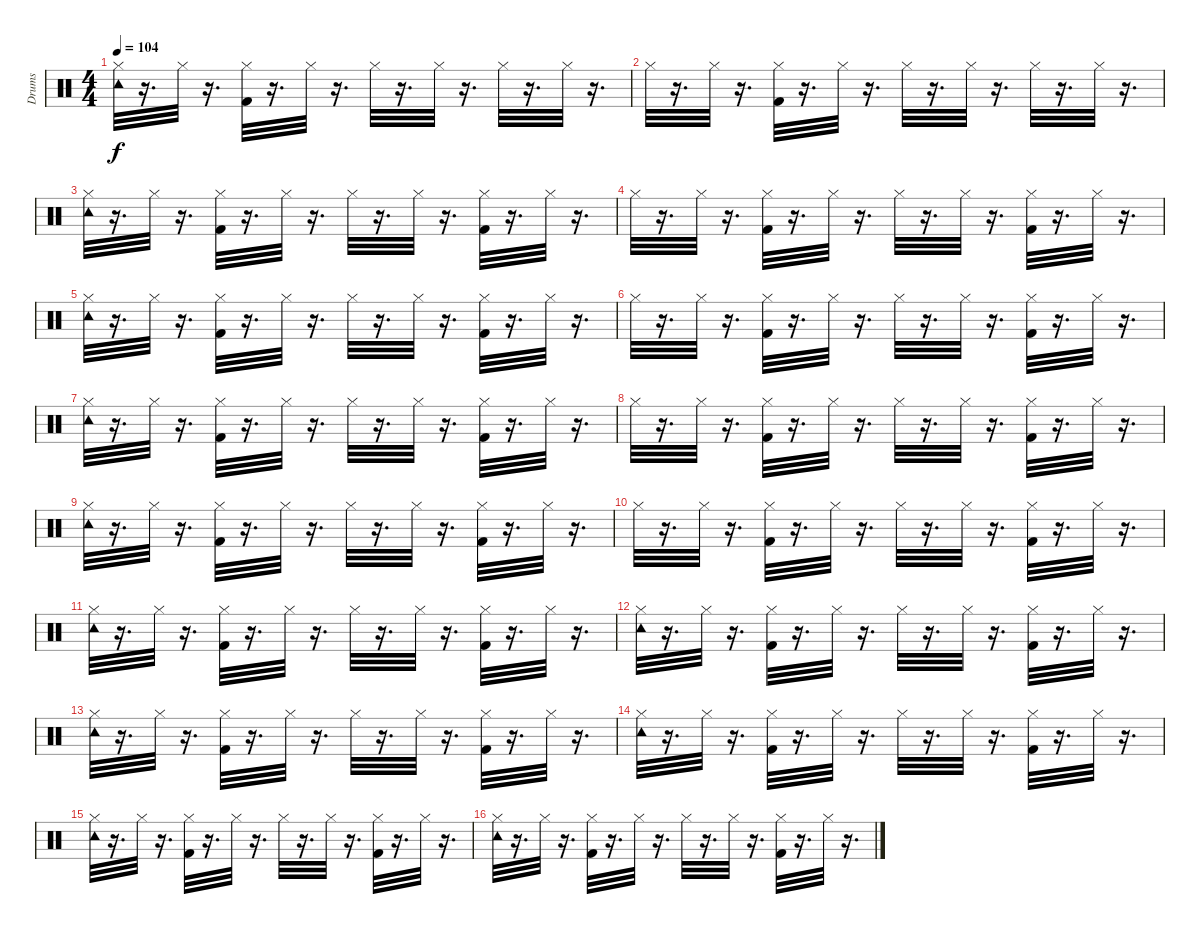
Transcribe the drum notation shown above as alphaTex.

\track ("Drums" "Drums") {instrument percussion}
\staff {score}
\articulation defaults
\ts (4 4)
\tempo 104
\clef neutral
\ks c
("Hi-Hat (closed)" "Tambourine (hit)").32{dy f} r.16{d} "Hi-Hat (closed)".32 r.16{d} ("Kick (hit) 2" "Hi-Hat (closed)").32 r.16{d} "Hi-Hat (closed)".32 r.16{d} "Hi-Hat (closed)".32 r.16{d} "Hi-Hat (closed)".32 r.16{d} "Hi-Hat (closed)".32 r.16{d} "Hi-Hat (closed)".32 r.16{d} |
"Hi-Hat (closed)".32 r.16{d} "Hi-Hat (closed)".32 r.16{d} ("Kick (hit) 2" "Hi-Hat (closed)").32 r.16{d} "Hi-Hat (closed)".32 r.16{d} "Hi-Hat (closed)".32 r.16{d} "Hi-Hat (closed)".32 r.16{d} "Hi-Hat (closed)".32 r.16{d} "Hi-Hat (closed)".32 r.16{d} |
("Hi-Hat (closed)" "Tambourine (hit)").32 r.16{d} "Hi-Hat (closed)".32 r.16{d} ("Hi-Hat (closed)" "Kick (hit) 2").32 r.16{d} "Hi-Hat (closed)".32 r.16{d} "Hi-Hat (closed)".32 r.16{d} "Hi-Hat (closed)".32 r.16{d} ("Kick (hit) 2" "Hi-Hat (closed)").32 r.16{d} "Hi-Hat (closed)".32 r.16{d} |
"Hi-Hat (closed)".32 r.16{d} "Hi-Hat (closed)".32 r.16{d} ("Kick (hit) 2" "Hi-Hat (closed)").32 r.16{d} "Hi-Hat (closed)".32 r.16{d} "Hi-Hat (closed)".32 r.16{d} "Hi-Hat (closed)".32 r.16{d} ("Kick (hit) 2" "Hi-Hat (closed)").32 r.16{d} "Hi-Hat (closed)".32 r.16{d} |
("Hi-Hat (closed)" "Tambourine (hit)").32 r.16{d} "Hi-Hat (closed)".32 r.16{d} ("Kick (hit) 2" "Hi-Hat (closed)").32 r.16{d} "Hi-Hat (closed)".32 r.16{d} "Hi-Hat (closed)".32 r.16{d} "Hi-Hat (closed)".32 r.16{d} ("Kick (hit) 2" "Hi-Hat (closed)").32 r.16{d} "Hi-Hat (closed)".32 r.16{d} |
"Hi-Hat (closed)".32 r.16{d} "Hi-Hat (closed)".32 r.16{d} ("Kick (hit) 2" "Hi-Hat (closed)").32 r.16{d} "Hi-Hat (closed)".32 r.16{d} "Hi-Hat (closed)".32 r.16{d} "Hi-Hat (closed)".32 r.16{d} ("Kick (hit) 2" "Hi-Hat (closed)").32 r.16{d} "Hi-Hat (closed)".32 r.16{d} |
("Hi-Hat (closed)" "Tambourine (hit)").32 r.16{d} "Hi-Hat (closed)".32 r.16{d} ("Hi-Hat (closed)" "Kick (hit) 2").32 r.16{d} "Hi-Hat (closed)".32 r.16{d} "Hi-Hat (closed)".32 r.16{d} "Hi-Hat (closed)".32 r.16{d} ("Kick (hit) 2" "Hi-Hat (closed)").32 r.16{d} "Hi-Hat (closed)".32 r.16{d} |
"Hi-Hat (closed)".32 r.16{d} "Hi-Hat (closed)".32 r.16{d} ("Kick (hit) 2" "Hi-Hat (closed)").32 r.16{d} "Hi-Hat (closed)".32 r.16{d} "Hi-Hat (closed)".32 r.16{d} "Hi-Hat (closed)".32 r.16{d} ("Kick (hit) 2" "Hi-Hat (closed)").32 r.16{d} "Hi-Hat (closed)".32 r.16{d} |
("Hi-Hat (closed)" "Tambourine (hit)").32 r.16{d} "Hi-Hat (closed)".32 r.16{d} ("Kick (hit) 2" "Hi-Hat (closed)").32 r.16{d} "Hi-Hat (closed)".32 r.16{d} "Hi-Hat (closed)".32 r.16{d} "Hi-Hat (closed)".32 r.16{d} ("Kick (hit) 2" "Hi-Hat (closed)").32 r.16{d} "Hi-Hat (closed)".32 r.16{d} |
"Hi-Hat (closed)".32 r.16{d} "Hi-Hat (closed)".32 r.16{d} ("Kick (hit) 2" "Hi-Hat (closed)").32 r.16{d} "Hi-Hat (closed)".32 r.16{d} "Hi-Hat (closed)".32 r.16{d} "Hi-Hat (closed)".32 r.16{d} ("Kick (hit) 2" "Hi-Hat (closed)").32 r.16{d} "Hi-Hat (closed)".32 r.16{d} |
("Hi-Hat (closed)" "Tambourine (hit)").32 r.16{d} "Hi-Hat (closed)".32 r.16{d} ("Hi-Hat (closed)" "Kick (hit) 2").32 r.16{d} "Hi-Hat (closed)".32 r.16{d} "Hi-Hat (closed)".32 r.16{d} "Hi-Hat (closed)".32 r.16{d} ("Kick (hit) 2" "Hi-Hat (closed)").32 r.16{d} "Hi-Hat (closed)".32 r.16{d} |
("Hi-Hat (closed)" "Tambourine (hit)").32 r.16{d} "Hi-Hat (closed)".32 r.16{d} ("Hi-Hat (closed)" "Kick (hit) 2").32 r.16{d} "Hi-Hat (closed)".32 r.16{d} "Hi-Hat (closed)".32 r.16{d} "Hi-Hat (closed)".32 r.16{d} ("Kick (hit) 2" "Hi-Hat (closed)").32 r.16{d} "Hi-Hat (closed)".32 r.16{d} |
("Hi-Hat (closed)" "Tambourine (hit)").32 r.16{d} "Hi-Hat (closed)".32 r.16{d} ("Hi-Hat (closed)" "Kick (hit) 2").32 r.16{d} "Hi-Hat (closed)".32 r.16{d} "Hi-Hat (closed)".32 r.16{d} "Hi-Hat (closed)".32 r.16{d} ("Kick (hit) 2" "Hi-Hat (closed)").32 r.16{d} "Hi-Hat (closed)".32 r.16{d} |
("Hi-Hat (closed)" "Tambourine (hit)").32 r.16{d} "Hi-Hat (closed)".32 r.16{d} ("Hi-Hat (closed)" "Kick (hit) 2").32 r.16{d} "Hi-Hat (closed)".32 r.16{d} "Hi-Hat (closed)".32 r.16{d} "Hi-Hat (closed)".32 r.16{d} ("Kick (hit) 2" "Hi-Hat (closed)").32 r.16{d} "Hi-Hat (closed)".32 r.16{d} |
("Hi-Hat (closed)" "Tambourine (hit)").32 r.16{d} "Hi-Hat (closed)".32 r.16{d} ("Hi-Hat (closed)" "Kick (hit) 2").32 r.16{d} "Hi-Hat (closed)".32 r.16{d} "Hi-Hat (closed)".32 r.16{d} "Hi-Hat (closed)".32 r.16{d} ("Kick (hit) 2" "Hi-Hat (closed)").32 r.16{d} "Hi-Hat (closed)".32 r.16{d} |
("Hi-Hat (closed)" "Tambourine (hit)").32 r.16{d} "Hi-Hat (closed)".32 r.16{d} ("Hi-Hat (closed)" "Kick (hit) 2").32 r.16{d} "Hi-Hat (closed)".32 r.16{d} "Hi-Hat (closed)".32 r.16{d} "Hi-Hat (closed)".32 r.16{d} ("Kick (hit) 2" "Hi-Hat (closed)").32 r.16{d} "Hi-Hat (closed)".32 r.16{d}
